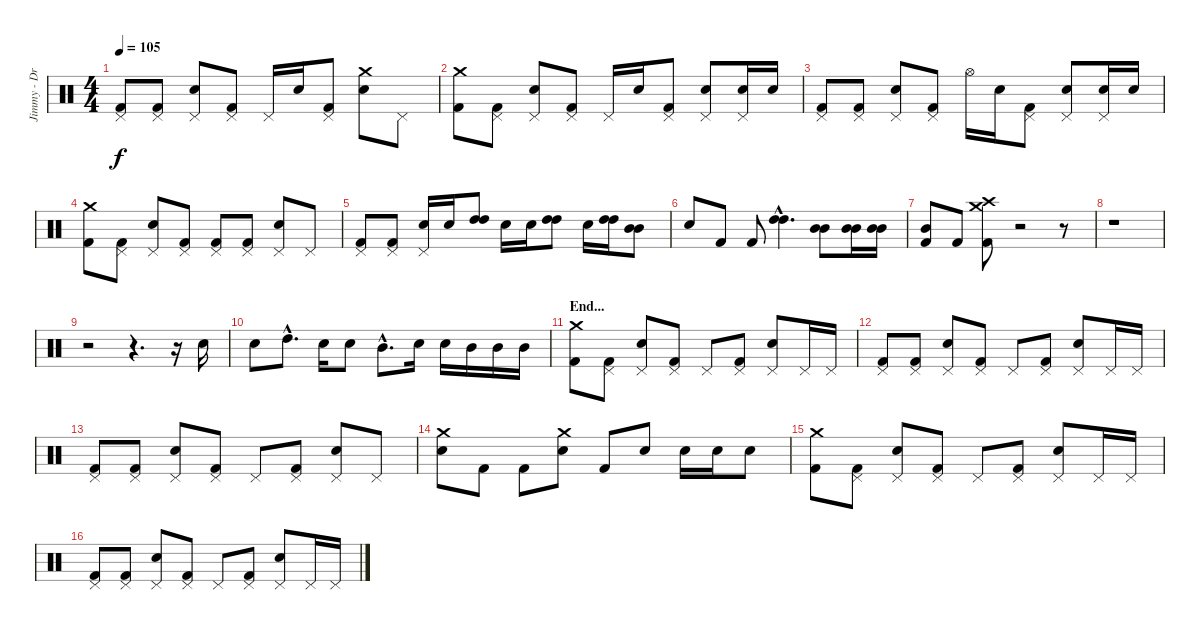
\track ("Jimmy - Drums" "Jimmy - Dr") {instrument percussion}
\staff {score}
\articulation defaults
\ts (4 4)
\tempo 105
\clef neutral
\ks c
("Pedal Hi-Hat (hit)" "Kick (hit) 2").8{dy f} ("Pedal Hi-Hat (hit)" "Kick (hit) 2").8 ("Pedal Hi-Hat (hit)" "Electric Snare (hit)").8 ("Pedal Hi-Hat (hit)" "Kick (hit) 2").8 "Pedal Hi-Hat (hit)".16 "Electric Snare (hit)".16 ("Pedal Hi-Hat (hit)" "Kick (hit) 2").8 ("Crash medium (hit)" "Electric Snare (hit)").8 "Pedal Hi-Hat (hit)".8 |
("Crash medium (hit)" "Kick (hit) 2").8 ("Pedal Hi-Hat (hit)" "Kick (hit) 2").8 ("Pedal Hi-Hat (hit)" "Electric Snare (hit)").8 ("Pedal Hi-Hat (hit)" "Kick (hit) 2").8 "Pedal Hi-Hat (hit)".16 "Electric Snare (hit)".16 ("Pedal Hi-Hat (hit)" "Kick (hit) 2").8 ("Pedal Hi-Hat (hit)" "Electric Snare (hit)").8 ("Pedal Hi-Hat (hit)" "Electric Snare (hit)").16 "Electric Snare (hit)".16 |
("Pedal Hi-Hat (hit)" "Kick (hit) 2").8 ("Pedal Hi-Hat (hit)" "Kick (hit) 2").8 ("Pedal Hi-Hat (hit)" "Electric Snare (hit)").8 ("Pedal Hi-Hat (hit)" "Kick (hit) 2").8 "Hi-Hat (open)".16 "Electric Snare (hit)".16 ("Pedal Hi-Hat (hit)" "Kick (hit) 2").8 ("Pedal Hi-Hat (hit)" "Electric Snare (hit)").8 ("Pedal Hi-Hat (hit)" "Electric Snare (hit)").16 "Electric Snare (hit)".16 |
("Crash medium (hit)" "Kick (hit) 2").8 ("Pedal Hi-Hat (hit)" "Kick (hit) 2").8 ("Pedal Hi-Hat (hit)" "Electric Snare (hit)").8 ("Pedal Hi-Hat (hit)" "Kick (hit) 2").8 ("Pedal Hi-Hat (hit)" "Kick (hit) 2").8 ("Pedal Hi-Hat (hit)" "Kick (hit) 2").8 ("Pedal Hi-Hat (hit)" "Electric Snare (hit)").8 "Pedal Hi-Hat (hit)".8 |
("Pedal Hi-Hat (hit)" "Kick (hit) 2").8 ("Pedal Hi-Hat (hit)" "Kick (hit) 2").8 ("Pedal Hi-Hat (hit)" "Electric Snare (hit)").16 "Electric Snare (hit)".16 ("High Tom (hit)" "High Tom (hit)").8 "Electric Snare (hit)".16 "Electric Snare (hit)".16 ("High Tom (hit)" "High Tom (hit)").8 "Electric Snare (hit)".16 ("High Tom (hit)" "High Tom (hit)").16 ("Mid Tom (hit)" "Mid Tom (hit)").8 |
"Electric Snare (hit)".8 "Kick (hit) 2".8 "Kick (hit) 2".8 ("High Tom (hit)"{hac} "High Tom (hit)"{hac}).4{d} ("Mid Tom (hit)" "Mid Tom (hit)").8 ("Mid Tom (hit)" "Mid Tom (hit)").16 ("Mid Tom (hit)" "Mid Tom (hit)").16 |
("Mid Tom (hit)" "Kick (hit) 2").8 "Kick (hit) 2".8 ("Crash medium (hit)" "Crash high (hit)" "Kick (hit) 2").8 r.2 r.8 |
r.1 |
r.2 r.4{d} r.16 "Electric Snare (hit)".16 |
"Electric Snare (hit)".8 "High Tom (hit)"{hac}.8{d} "Electric Snare (hit)".16 "Electric Snare (hit)".8 "Mid Tom (hit)"{hac}.8{d} "Electric Snare (hit)".16 "Electric Snare (hit)".16 "Mid Tom (hit)".16 "Mid Tom (hit)".16 "Mid Tom (hit)".16 |
\section ("" "End...")
("Crash medium (hit)" "Kick (hit) 2").8 ("Pedal Hi-Hat (hit)" "Kick (hit) 2").8 ("Pedal Hi-Hat (hit)" "Electric Snare (hit)").8 ("Pedal Hi-Hat (hit)" "Kick (hit) 2").8 "Pedal Hi-Hat (hit)".8 ("Pedal Hi-Hat (hit)" "Kick (hit) 2").8 ("Pedal Hi-Hat (hit)" "Electric Snare (hit)").8 "Pedal Hi-Hat (hit)".16 "Pedal Hi-Hat (hit)".16 |
("Pedal Hi-Hat (hit)" "Kick (hit) 2").8 ("Pedal Hi-Hat (hit)" "Kick (hit) 2").8 ("Pedal Hi-Hat (hit)" "Electric Snare (hit)").8 ("Pedal Hi-Hat (hit)" "Kick (hit) 2").8 "Pedal Hi-Hat (hit)".8 ("Pedal Hi-Hat (hit)" "Kick (hit) 2").8 ("Pedal Hi-Hat (hit)" "Electric Snare (hit)").8 "Pedal Hi-Hat (hit)".16 "Pedal Hi-Hat (hit)".16 |
("Pedal Hi-Hat (hit)" "Kick (hit) 2").8 ("Pedal Hi-Hat (hit)" "Kick (hit) 2").8 ("Pedal Hi-Hat (hit)" "Electric Snare (hit)").8 ("Pedal Hi-Hat (hit)" "Kick (hit) 2").8 "Pedal Hi-Hat (hit)".8 ("Pedal Hi-Hat (hit)" "Kick (hit) 2").8 ("Pedal Hi-Hat (hit)" "Electric Snare (hit)").8 "Pedal Hi-Hat (hit)".8 |
("Crash medium (hit)" "Electric Snare (hit)").8 "Kick (hit) 2".8 "Kick (hit) 2".8 ("Crash medium (hit)" "Electric Snare (hit)").8 "Kick (hit) 2".8 "Electric Snare (hit)".8 "Electric Snare (hit)".16 "Electric Snare (hit)".16 "Electric Snare (hit)".8 |
("Crash medium (hit)" "Kick (hit) 2").8 ("Pedal Hi-Hat (hit)" "Kick (hit) 2").8 ("Pedal Hi-Hat (hit)" "Electric Snare (hit)").8 ("Pedal Hi-Hat (hit)" "Kick (hit) 2").8 "Pedal Hi-Hat (hit)".8 ("Pedal Hi-Hat (hit)" "Kick (hit) 2").8 ("Pedal Hi-Hat (hit)" "Electric Snare (hit)").8 "Pedal Hi-Hat (hit)".16 "Pedal Hi-Hat (hit)".16 |
("Pedal Hi-Hat (hit)" "Kick (hit) 2").8 ("Pedal Hi-Hat (hit)" "Kick (hit) 2").8 ("Pedal Hi-Hat (hit)" "Electric Snare (hit)").8 ("Pedal Hi-Hat (hit)" "Kick (hit) 2").8 "Pedal Hi-Hat (hit)".8 ("Pedal Hi-Hat (hit)" "Kick (hit) 2").8 ("Pedal Hi-Hat (hit)" "Electric Snare (hit)").8 "Pedal Hi-Hat (hit)".16 "Pedal Hi-Hat (hit)".16
